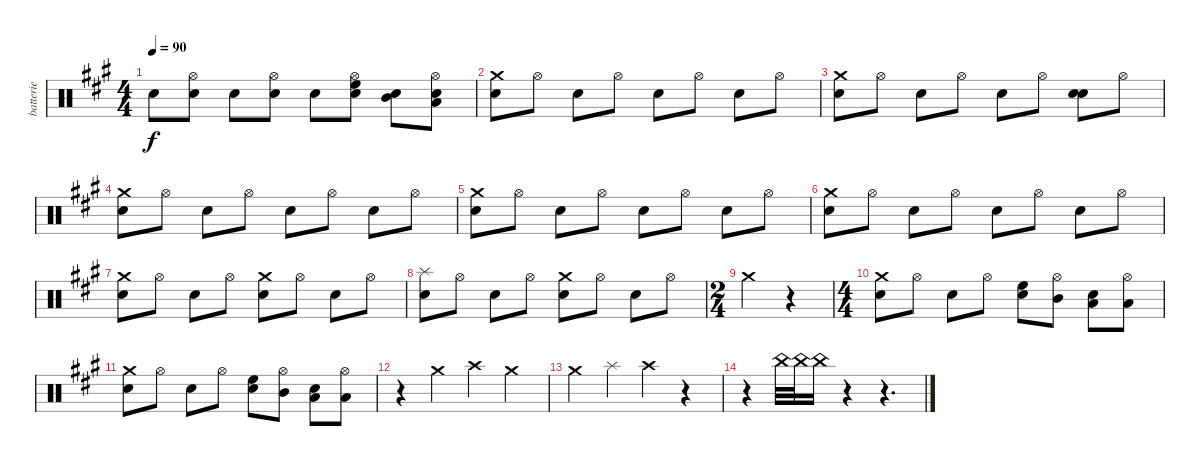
\track ("batterie" "batterie") {instrument percussion}
\staff {score}
\articulation defaults
\ts (4 4)
\tempo 90
\clef neutral
\ks f#minor "Electric Snare (hit)".8{dy f}
("Electric Snare (hit)" "Hi-Hat (open)").8 "Electric Snare (hit)".8 ("Electric Snare (hit)" "Hi-Hat (open)").8 "Electric Snare (hit)".8 ("Electric Snare (hit)" "High Floor Tom (hit)" "Hi-Hat (open)").8 ("Electric Snare (hit)" "Mid Tom (hit)").8 ("Electric Snare (hit)" "Low Tom (hit)" "Hi-Hat (open)").8 |
("Crash medium (hit)" "Electric Snare (hit)").8 "Hi-Hat (open)".8 "Electric Snare (hit)".8 "Hi-Hat (open)".8 "Electric Snare (hit)".8 "Hi-Hat (open)".8 "Electric Snare (hit)".8 "Hi-Hat (open)".8 |
("Crash medium (hit)" "Electric Snare (hit)").8 "Hi-Hat (open)".8 "Electric Snare (hit)".8 "Hi-Hat (open)".8 "Electric Snare (hit)".8 "Hi-Hat (open)".8 ("Electric Snare (hit)" "Electric Snare (hit)").8 "Hi-Hat (open)".8 |
("Crash medium (hit)" "Electric Snare (hit)").8 "Hi-Hat (open)".8 "Electric Snare (hit)".8 "Hi-Hat (open)".8 "Electric Snare (hit)".8 "Hi-Hat (open)".8 "Electric Snare (hit)".8 "Hi-Hat (open)".8 |
("Crash medium (hit)" "Electric Snare (hit)").8 "Hi-Hat (open)".8 "Electric Snare (hit)".8 "Hi-Hat (open)".8 "Electric Snare (hit)".8 "Hi-Hat (open)".8 "Electric Snare (hit)".8 "Hi-Hat (open)".8 |
("Crash medium (hit)" "Electric Snare (hit)").8 "Hi-Hat (open)".8 "Electric Snare (hit)".8 "Hi-Hat (open)".8 "Electric Snare (hit)".8 "Hi-Hat (open)".8 "Electric Snare (hit)".8 "Hi-Hat (open)".8 |
("Crash medium (hit)" "Electric Snare (hit)").8 "Hi-Hat (open)".8 "Electric Snare (hit)".8 "Hi-Hat (open)".8 ("Crash medium (hit)" "Electric Snare (hit)").8 "Hi-Hat (open)".8 "Electric Snare (hit)".8 "Hi-Hat (open)".8 |
("Splash (hit)" "Electric Snare (hit)").8 "Hi-Hat (open)".8 "Electric Snare (hit)".8 "Hi-Hat (open)".8 ("Crash medium (hit)" "Electric Snare (hit)").8 "Hi-Hat (open)".8 "Electric Snare (hit)".8 "Hi-Hat (open)".8 |
\ts (2 4)
"Crash medium (hit)".4 r.4 |
\ts (4 4)
("Crash medium (hit)" "Electric Snare (hit)").8 "Hi-Hat (open)".8 "Electric Snare (hit)".8 "Hi-Hat (open)".8 ("High Floor Tom (hit)" "Electric Snare (hit)").8 ("Mid Tom (hit)" "Hi-Hat (open)").8 ("Low Tom (hit)" "Electric Snare (hit)").8 ("Low Floor Tom (hit)" "Hi-Hat (open)").8 |
("Crash medium (hit)" "Electric Snare (hit)").8 "Hi-Hat (open)".8 "Electric Snare (hit)".8 "Hi-Hat (open)".8 ("High Floor Tom (hit)" "Electric Snare (hit)").8 ("Mid Tom (hit)" "Hi-Hat (open)").8 ("Low Tom (hit)" "Electric Snare (hit)").8 ("Low Floor Tom (hit)" "Hi-Hat (open)").8 |
r.4 "Crash medium (hit)".4 "Crash high (hit)".4 "Crash medium (hit)".4 |
"Crash medium (hit)".4 "Splash (hit)".4 "Crash high (hit)".4 r.4 |
r.4 "China (hit)".32 "China (hit)".32 "China (hit)".16 r.4 r.4{d}
